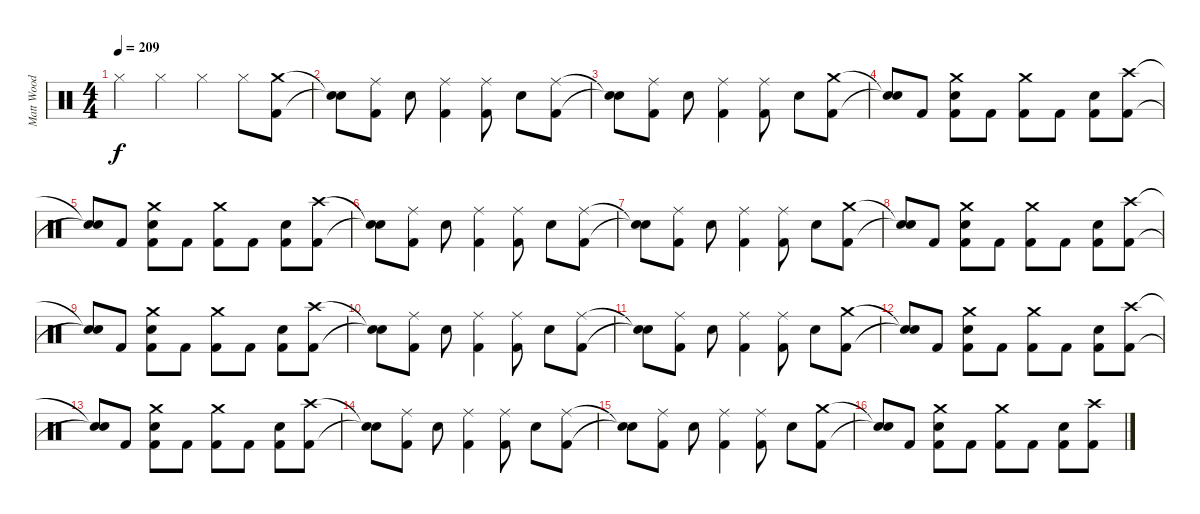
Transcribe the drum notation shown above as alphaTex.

\track ("Matt Wood" "Matt Wood") {instrument percussion}
\staff {score}
\articulation defaults
\ts (4 4)
\tempo 209
\clef neutral
\ks c "Hi-Hat (closed)".4{dy f} "Hi-Hat (closed)".4 "Hi-Hat (closed)".4 "Hi-Hat (closed)".8
("Crash medium (hit)" "Kick (hit) 2").8 |
("Snare (hit)"{t} "Snare (hit)"{t}).8 ("Ride (middle)" "Kick (hit) 2").8 "Snare (hit) 2".8 ("Ride (middle)" "Kick (hit) 2").4 ("Ride (middle)" "Kick (hit) 2").8 "Snare (hit) 2".8 ("Ride (middle)" "Kick (hit) 2").8 |
("Snare (hit)"{t} "Snare (hit)"{t}).8 ("Ride (middle)" "Kick (hit) 2").8 "Snare (hit) 2".8 ("Ride (middle)" "Kick (hit) 2").4 ("Ride (middle)" "Kick (hit) 2").8 "Snare (hit) 2".8 ("Crash medium (hit)" "Kick (hit) 2").8 |
("Snare (hit)"{t} "Snare (hit)"{t}).8 "Kick (hit) 2".8 ("Crash medium (hit)" "Snare (hit) 2" "Kick (hit) 2").8 "Kick (hit) 2".8 ("Crash medium (hit)" "Kick (hit) 2").8 "Kick (hit) 2".8 ("Snare (hit) 2" "Kick (hit) 2").8 ("Crash high (hit)" "Kick (hit) 2").8 |
("Snare (hit)"{t} "Snare (hit)"{t}).8 "Kick (hit) 2".8 ("Crash medium (hit)" "Snare (hit) 2" "Kick (hit) 2").8 "Kick (hit) 2".8 ("Crash medium (hit)" "Kick (hit) 2").8 "Kick (hit) 2".8 ("Snare (hit) 2" "Kick (hit) 2").8 ("Crash high (hit)" "Kick (hit) 2").8 |
("Snare (hit)"{t} "Snare (hit)"{t}).8 ("Ride (middle)" "Kick (hit) 2").8 "Snare (hit) 2".8 ("Ride (middle)" "Kick (hit) 2").4 ("Ride (middle)" "Kick (hit) 2").8 "Snare (hit) 2".8 ("Ride (middle)" "Kick (hit) 2").8 |
("Snare (hit)"{t} "Snare (hit)"{t}).8 ("Ride (middle)" "Kick (hit) 2").8 "Snare (hit) 2".8 ("Ride (middle)" "Kick (hit) 2").4 ("Ride (middle)" "Kick (hit) 2").8 "Snare (hit) 2".8 ("Crash medium (hit)" "Kick (hit) 2").8 |
("Snare (hit)"{t} "Snare (hit)"{t}).8 "Kick (hit) 2".8 ("Crash medium (hit)" "Snare (hit) 2" "Kick (hit) 2").8 "Kick (hit) 2".8 ("Crash medium (hit)" "Kick (hit) 2").8 "Kick (hit) 2".8 ("Snare (hit) 2" "Kick (hit) 2").8 ("Crash high (hit)" "Kick (hit) 2").8 |
("Snare (hit)"{t} "Snare (hit)"{t}).8 "Kick (hit) 2".8 ("Crash medium (hit)" "Snare (hit) 2" "Kick (hit) 2").8 "Kick (hit) 2".8 ("Crash medium (hit)" "Kick (hit) 2").8 "Kick (hit) 2".8 ("Snare (hit) 2" "Kick (hit) 2").8 ("Crash high (hit)" "Kick (hit) 2").8 |
("Snare (hit)"{t} "Snare (hit)"{t}).8 ("Ride (middle)" "Kick (hit) 2").8 "Snare (hit) 2".8 ("Ride (middle)" "Kick (hit) 2").4 ("Ride (middle)" "Kick (hit) 2").8 "Snare (hit) 2".8 ("Ride (middle)" "Kick (hit) 2").8 |
("Snare (hit)"{t} "Snare (hit)"{t}).8 ("Ride (middle)" "Kick (hit) 2").8 "Snare (hit) 2".8 ("Ride (middle)" "Kick (hit) 2").4 ("Ride (middle)" "Kick (hit) 2").8 "Snare (hit) 2".8 ("Crash medium (hit)" "Kick (hit) 2").8 |
("Snare (hit)"{t} "Snare (hit)"{t}).8 "Kick (hit) 2".8 ("Crash medium (hit)" "Snare (hit) 2" "Kick (hit) 2").8 "Kick (hit) 2".8 ("Crash medium (hit)" "Kick (hit) 2").8 "Kick (hit) 2".8 ("Snare (hit) 2" "Kick (hit) 2").8 ("Crash high (hit)" "Kick (hit) 2").8 |
("Snare (hit)"{t} "Snare (hit)"{t}).8 "Kick (hit) 2".8 ("Crash medium (hit)" "Snare (hit) 2" "Kick (hit) 2").8 "Kick (hit) 2".8 ("Crash medium (hit)" "Kick (hit) 2").8 "Kick (hit) 2".8 ("Snare (hit) 2" "Kick (hit) 2").8 ("Crash high (hit)" "Kick (hit) 2").8 |
("Snare (hit)"{t} "Snare (hit)"{t}).8 ("Ride (middle)" "Kick (hit) 2").8 "Snare (hit) 2".8 ("Ride (middle)" "Kick (hit) 2").4 ("Ride (middle)" "Kick (hit) 2").8 "Snare (hit) 2".8 ("Ride (middle)" "Kick (hit) 2").8 |
("Snare (hit)"{t} "Snare (hit)"{t}).8 ("Ride (middle)" "Kick (hit) 2").8 "Snare (hit) 2".8 ("Ride (middle)" "Kick (hit) 2").4 ("Ride (middle)" "Kick (hit) 2").8 "Snare (hit) 2".8 ("Crash medium (hit)" "Kick (hit) 2").8 |
("Snare (hit)"{t} "Snare (hit)"{t}).8 "Kick (hit) 2".8 ("Crash medium (hit)" "Snare (hit) 2" "Kick (hit) 2").8 "Kick (hit) 2".8 ("Crash medium (hit)" "Kick (hit) 2").8 "Kick (hit) 2".8 ("Snare (hit) 2" "Kick (hit) 2").8 ("Crash high (hit)" "Kick (hit) 2").8
